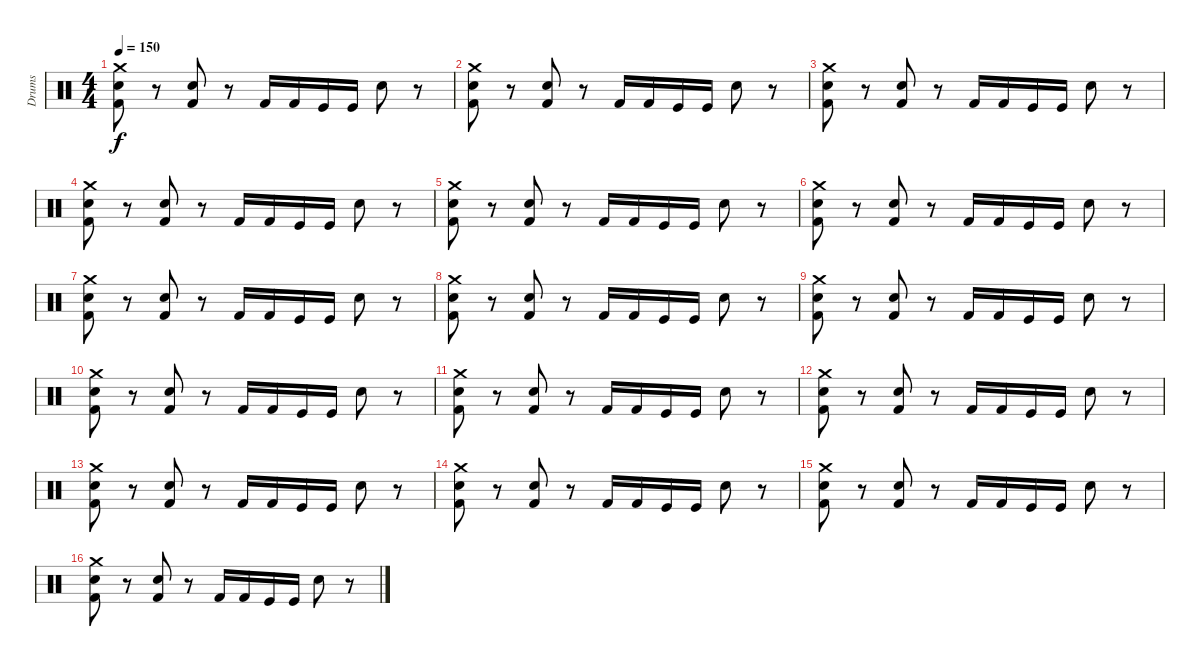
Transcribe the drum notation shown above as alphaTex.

\track ("Drums" "Drums") {instrument percussion}
\staff {score}
\articulation defaults
\ts (4 4)
\tempo 150
\clef neutral
\ks c
("Crash medium (hit)" "Snare (hit) 2" "Kick (hit) 2").8{dy f} r.8 ("Snare (hit) 2" "Kick (hit) 2").8 r.8 "Kick (hit) 2".16 "Kick (hit) 2".16 "Kick (hit)".16 "Kick (hit)".16 "Snare (hit) 2".8 r.8 |
("Crash medium (hit)" "Snare (hit) 2" "Kick (hit) 2").8 r.8 ("Snare (hit) 2" "Kick (hit) 2").8 r.8 "Kick (hit) 2".16 "Kick (hit) 2".16 "Kick (hit)".16 "Kick (hit)".16 "Snare (hit) 2".8 r.8 |
("Crash medium (hit)" "Snare (hit) 2" "Kick (hit) 2").8 r.8 ("Snare (hit) 2" "Kick (hit) 2").8 r.8 "Kick (hit) 2".16 "Kick (hit) 2".16 "Kick (hit)".16 "Kick (hit)".16 "Snare (hit) 2".8 r.8 |
("Crash medium (hit)" "Snare (hit) 2" "Kick (hit) 2").8 r.8 ("Snare (hit) 2" "Kick (hit) 2").8 r.8 "Kick (hit) 2".16 "Kick (hit) 2".16 "Kick (hit)".16 "Kick (hit)".16 "Snare (hit) 2".8 r.8 |
("Crash medium (hit)" "Snare (hit) 2" "Kick (hit) 2").8 r.8 ("Snare (hit) 2" "Kick (hit) 2").8 r.8 "Kick (hit) 2".16 "Kick (hit) 2".16 "Kick (hit)".16 "Kick (hit)".16 "Snare (hit) 2".8 r.8 |
("Crash medium (hit)" "Snare (hit) 2" "Kick (hit) 2").8 r.8 ("Snare (hit) 2" "Kick (hit) 2").8 r.8 "Kick (hit) 2".16 "Kick (hit) 2".16 "Kick (hit)".16 "Kick (hit)".16 "Snare (hit) 2".8 r.8 |
("Crash medium (hit)" "Snare (hit) 2" "Kick (hit) 2").8 r.8 ("Snare (hit) 2" "Kick (hit) 2").8 r.8 "Kick (hit) 2".16 "Kick (hit) 2".16 "Kick (hit)".16 "Kick (hit)".16 "Snare (hit) 2".8 r.8 |
("Crash medium (hit)" "Snare (hit) 2" "Kick (hit) 2").8 r.8 ("Snare (hit) 2" "Kick (hit) 2").8 r.8 "Kick (hit) 2".16 "Kick (hit) 2".16 "Kick (hit)".16 "Kick (hit)".16 "Snare (hit) 2".8 r.8 |
("Crash medium (hit)" "Snare (hit) 2" "Kick (hit) 2").8 r.8 ("Snare (hit) 2" "Kick (hit) 2").8 r.8 "Kick (hit) 2".16 "Kick (hit) 2".16 "Kick (hit)".16 "Kick (hit)".16 "Snare (hit) 2".8 r.8 |
("Crash medium (hit)" "Snare (hit) 2" "Kick (hit) 2").8 r.8 ("Snare (hit) 2" "Kick (hit) 2").8 r.8 "Kick (hit) 2".16 "Kick (hit) 2".16 "Kick (hit)".16 "Kick (hit)".16 "Snare (hit) 2".8 r.8 |
("Crash medium (hit)" "Snare (hit) 2" "Kick (hit) 2").8 r.8 ("Snare (hit) 2" "Kick (hit) 2").8 r.8 "Kick (hit) 2".16 "Kick (hit) 2".16 "Kick (hit)".16 "Kick (hit)".16 "Snare (hit) 2".8 r.8 |
("Crash medium (hit)" "Snare (hit) 2" "Kick (hit) 2").8 r.8 ("Snare (hit) 2" "Kick (hit) 2").8 r.8 "Kick (hit) 2".16 "Kick (hit) 2".16 "Kick (hit)".16 "Kick (hit)".16 "Snare (hit) 2".8 r.8 |
("Crash medium (hit)" "Snare (hit) 2" "Kick (hit) 2").8 r.8 ("Snare (hit) 2" "Kick (hit) 2").8 r.8 "Kick (hit) 2".16 "Kick (hit) 2".16 "Kick (hit)".16 "Kick (hit)".16 "Snare (hit) 2".8 r.8 |
("Crash medium (hit)" "Snare (hit) 2" "Kick (hit) 2").8 r.8 ("Snare (hit) 2" "Kick (hit) 2").8 r.8 "Kick (hit) 2".16 "Kick (hit) 2".16 "Kick (hit)".16 "Kick (hit)".16 "Snare (hit) 2".8 r.8 |
("Crash medium (hit)" "Snare (hit) 2" "Kick (hit) 2").8 r.8 ("Snare (hit) 2" "Kick (hit) 2").8 r.8 "Kick (hit) 2".16 "Kick (hit) 2".16 "Kick (hit)".16 "Kick (hit)".16 "Snare (hit) 2".8 r.8 |
("Crash medium (hit)" "Snare (hit) 2" "Kick (hit) 2").8 r.8 ("Snare (hit) 2" "Kick (hit) 2").8 r.8 "Kick (hit) 2".16 "Kick (hit) 2".16 "Kick (hit)".16 "Kick (hit)".16 "Snare (hit) 2".8 r.8
